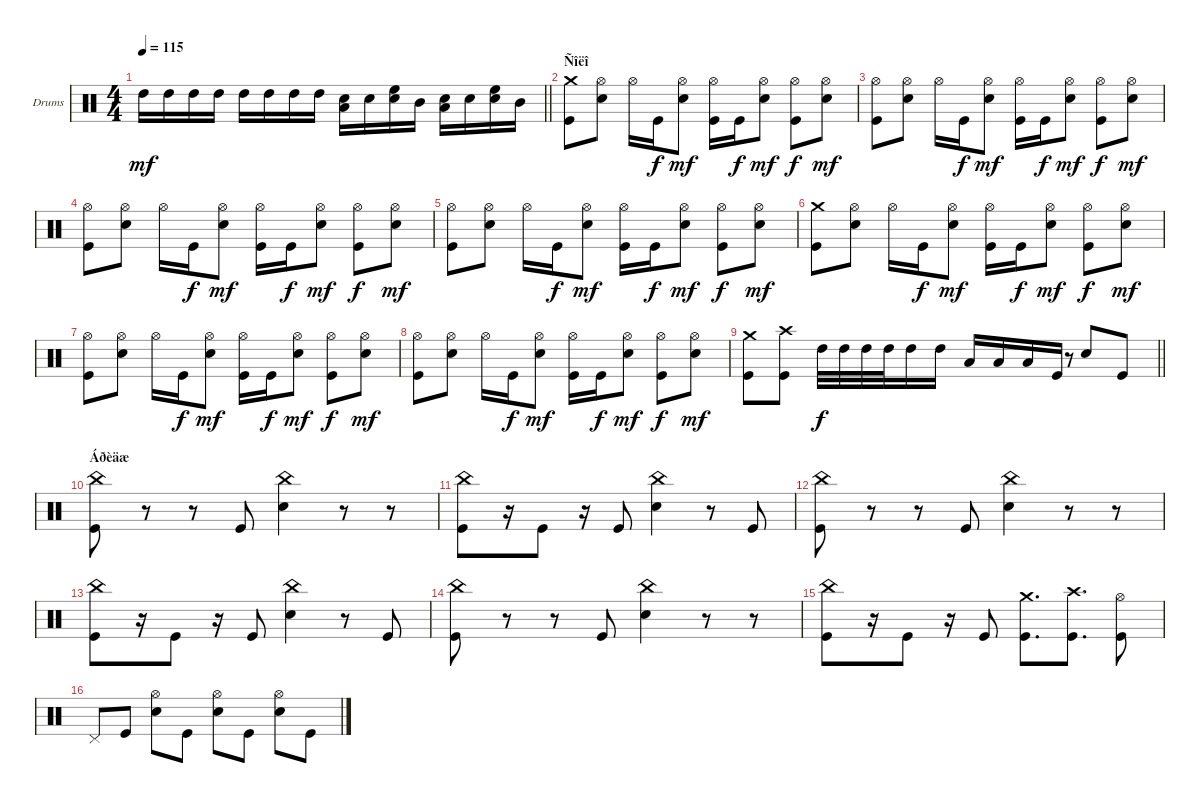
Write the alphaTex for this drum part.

\bracketExtendMode groupsimilarinstruments
\firstSystemTrackNameOrientation horizontal
\otherSystemsTrackNameOrientation horizontal
\track ("Drumkit" "Drums") {instrument percussion}
\staff {score}
\articulation defaults
\ts (4 4)
\tempo 115
\clef neutral
\barLineRight lightlight
\ks c "High Tom (hit)".16{dy mf} "High Tom (hit)".16 "High Tom (hit)".16 "High Tom (hit)".16 "High Tom (hit)".16 "High Tom (hit)".16 "High Tom (hit)".16 "High Tom (hit)".16
("Low Tom (hit)" "Snare (hit) 2").16 "Snare (hit) 2".16 ("Snare (hit) 2" "High Floor Tom (hit)").16 "Mid Tom (hit)".16 ("Low Tom (hit)" "Snare (hit) 2").16 "Snare (hit) 2".16 ("Snare (hit) 2" "High Floor Tom (hit)").16 "Mid Tom (hit)".16 |
\section ("" "Ñîëî")
("Crash medium (hit)" "Kick (hit)").8 ("Hi-Hat (open)" "Snare (hit) 2").8 "Hi-Hat (open)".16 "Kick (hit)".16{dy f} ("Hi-Hat (open)" "Snare (hit) 2").8{dy mf} ("Hi-Hat (open)" "Kick (hit)").16 "Kick (hit)".16{dy f} ("Hi-Hat (open)" "Snare (hit) 2").8{dy mf} ("Kick (hit)" "Hi-Hat (open)").8{dy f} ("Hi-Hat (open)" "Snare (hit) 2").8{dy mf} |
("Hi-Hat (open)" "Kick (hit)").8 ("Hi-Hat (open)" "Snare (hit) 2").8 "Hi-Hat (open)".16 "Kick (hit)".16{dy f} ("Hi-Hat (open)" "Snare (hit) 2").8{dy mf} ("Hi-Hat (open)" "Kick (hit)").16 "Kick (hit)".16{dy f} ("Hi-Hat (open)" "Snare (hit) 2").8{dy mf} ("Kick (hit)" "Hi-Hat (open)").8{dy f} ("Hi-Hat (open)" "Snare (hit) 2").8{dy mf} |
("Hi-Hat (open)" "Kick (hit)").8 ("Hi-Hat (open)" "Snare (hit) 2").8 "Hi-Hat (open)".16 "Kick (hit)".16{dy f} ("Hi-Hat (open)" "Snare (hit) 2").8{dy mf} ("Hi-Hat (open)" "Kick (hit)").16 "Kick (hit)".16{dy f} ("Hi-Hat (open)" "Snare (hit) 2").8{dy mf} ("Kick (hit)" "Hi-Hat (open)").8{dy f} ("Hi-Hat (open)" "Snare (hit) 2").8{dy mf} |
("Hi-Hat (open)" "Kick (hit)").8 ("Hi-Hat (open)" "Snare (hit) 2").8 "Hi-Hat (open)".16 "Kick (hit)".16{dy f} ("Hi-Hat (open)" "Snare (hit) 2").8{dy mf} ("Hi-Hat (open)" "Kick (hit)").16 "Kick (hit)".16{dy f} ("Hi-Hat (open)" "Snare (hit) 2").8{dy mf} ("Kick (hit)" "Hi-Hat (open)").8{dy f} ("Hi-Hat (open)" "Snare (hit) 2").8{dy mf} |
("Crash medium (hit)" "Kick (hit)").8 ("Hi-Hat (open)" "Snare (hit) 2").8 "Hi-Hat (open)".16 "Kick (hit)".16{dy f} ("Hi-Hat (open)" "Snare (hit) 2").8{dy mf} ("Hi-Hat (open)" "Kick (hit)").16 "Kick (hit)".16{dy f} ("Hi-Hat (open)" "Snare (hit) 2").8{dy mf} ("Kick (hit)" "Hi-Hat (open)").8{dy f} ("Hi-Hat (open)" "Snare (hit) 2").8{dy mf} |
("Hi-Hat (open)" "Kick (hit)").8 ("Hi-Hat (open)" "Snare (hit) 2").8 "Hi-Hat (open)".16 "Kick (hit)".16{dy f} ("Hi-Hat (open)" "Snare (hit) 2").8{dy mf} ("Hi-Hat (open)" "Kick (hit)").16 "Kick (hit)".16{dy f} ("Hi-Hat (open)" "Snare (hit) 2").8{dy mf} ("Kick (hit)" "Hi-Hat (open)").8{dy f} ("Hi-Hat (open)" "Snare (hit) 2").8{dy mf} |
("Hi-Hat (open)" "Kick (hit)").8 ("Hi-Hat (open)" "Snare (hit) 2").8 "Hi-Hat (open)".16 "Kick (hit)".16{dy f} ("Hi-Hat (open)" "Snare (hit) 2").8{dy mf} ("Hi-Hat (open)" "Kick (hit)").16 "Kick (hit)".16{dy f} ("Hi-Hat (open)" "Snare (hit) 2").8{dy mf} ("Kick (hit)" "Hi-Hat (open)").8{dy f} ("Hi-Hat (open)" "Snare (hit) 2").8{dy mf} |
\barLineRight lightlight
("Crash medium (hit)" "Kick (hit)").8 ("Crash high (hit)" "Kick (hit)").8 "High Tom (hit)".32{dy f} "High Tom (hit)".32 "High Tom (hit)".32 "High Tom (hit)".32 "High Tom (hit)".16 "High Tom (hit)".16 "Low Tom (hit)".16 "Low Tom (hit)".16 "Low Tom (hit)".16 "Kick (hit)".16 r.8{gr} "Snare (hit) 2".8 "Kick (hit)".8 |
\section ("" "Áðèäæ")
("China (hit)" "Kick (hit)").8 r.8 r.8 "Kick (hit)".8 ("China (hit)" "Snare (hit) 2").4 r.8 r.8 |
("China (hit)" "Kick (hit)").8 r.16 "Kick (hit)".8 r.16 "Kick (hit)".8 ("China (hit)" "Snare (hit) 2").4 r.8 "Kick (hit)".8 |
("China (hit)" "Kick (hit)").8 r.8 r.8 "Kick (hit)".8 ("China (hit)" "Snare (hit) 2").4 r.8 r.8 |
("China (hit)" "Kick (hit)").8 r.16 "Kick (hit)".8 r.16 "Kick (hit)".8 ("China (hit)" "Snare (hit) 2").4 r.8 "Kick (hit)".8 |
("China (hit)" "Kick (hit)").8 r.8 r.8 "Kick (hit)".8 ("China (hit)" "Snare (hit) 2").4 r.8 r.8 |
("China (hit)" "Kick (hit)").8 r.16 "Kick (hit)".8 r.16 "Kick (hit)".8 ("Crash medium (hit)" "Kick (hit)").8{d} ("Crash high (hit)" "Kick (hit)").8{d} ("Hi-Hat (open)" "Kick (hit)").8 |
"Pedal Hi-Hat (hit)".8 "Kick (hit)".8 ("Hi-Hat (open)" "Snare (hit) 2").8 "Kick (hit)".8 ("Hi-Hat (open)" "Snare (hit) 2").8 "Kick (hit)".8 ("Hi-Hat (open)" "Snare (hit) 2").8 "Kick (hit)".8
